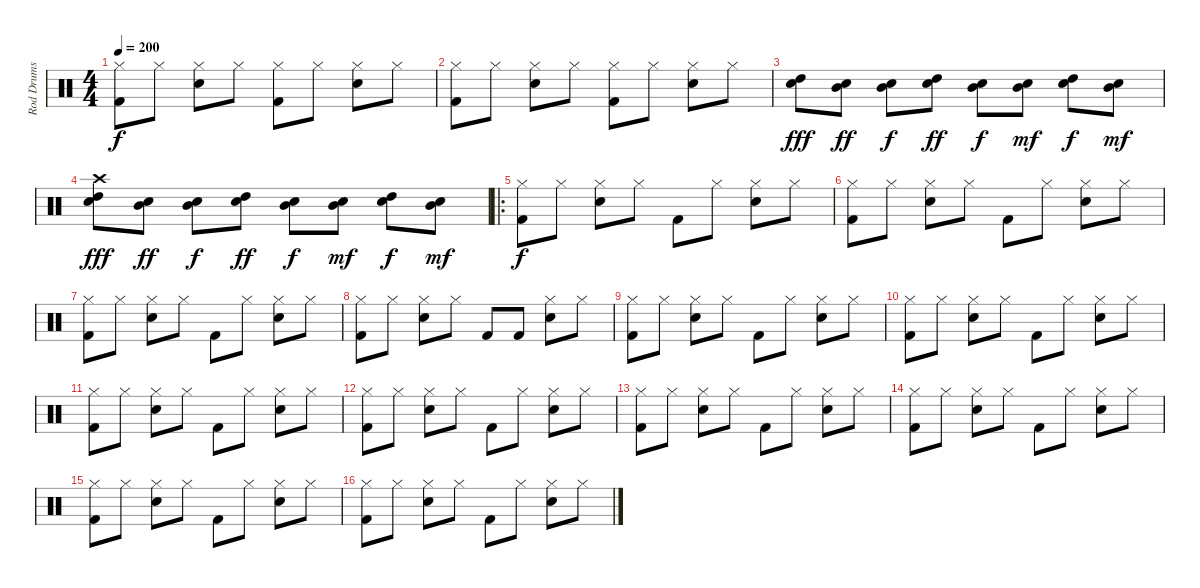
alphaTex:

\track ("Rod Drums" "Rod Drums") {instrument percussion}
\staff {score}
\articulation defaults
\ts (4 4)
\tempo 200
\clef neutral
\ks c
("Kick (hit) 2" "Hi-Hat (closed)").8{dy f} "Hi-Hat (closed)".8 ("Snare (hit) 2" "Hi-Hat (closed)").8 "Hi-Hat (closed)".8 ("Kick (hit) 2" "Hi-Hat (closed)").8 "Hi-Hat (closed)".8 ("Snare (hit) 2" "Hi-Hat (closed)").8 "Hi-Hat (closed)".8 |
("Kick (hit) 2" "Hi-Hat (closed)").8 "Hi-Hat (closed)".8 ("Snare (hit) 2" "Hi-Hat (closed)").8 "Hi-Hat (closed)".8 ("Kick (hit) 2" "Hi-Hat (closed)").8 "Hi-Hat (closed)".8 ("Snare (hit) 2" "Hi-Hat (closed)").8 "Hi-Hat (closed)".8 |
("Snare (hit) 2" "High Tom (hit)").8{dy fff} ("Snare (hit) 2" "Mid Tom (hit)").8{dy ff} ("Snare (hit) 2" "Mid Tom (hit)").8{dy f} ("Snare (hit) 2" "High Tom (hit)").8{dy ff} ("Snare (hit) 2" "Mid Tom (hit)").8{dy f} ("Snare (hit) 2" "Mid Tom (hit)").8{dy mf} ("Snare (hit) 2" "High Tom (hit)").8{dy f} ("Snare (hit) 2" "Mid Tom (hit)").8{dy mf} |
("Snare (hit) 2" "High Tom (hit)" "Crash high (hit)").8{dy fff} ("Snare (hit) 2" "Mid Tom (hit)").8{dy ff} ("Snare (hit) 2" "Mid Tom (hit)").8{dy f} ("Snare (hit) 2" "High Tom (hit)").8{dy ff} ("Snare (hit) 2" "Mid Tom (hit)").8{dy f} ("Snare (hit) 2" "Mid Tom (hit)").8{dy mf} ("Snare (hit) 2" "High Tom (hit)").8{dy f} ("Snare (hit) 2" "Mid Tom (hit)").8{dy mf} |
\ro
("Kick (hit) 2" "Hi-Hat (closed)").8{dy f} "Hi-Hat (closed)".8 ("Snare (hit) 2" "Hi-Hat (closed)").8 "Hi-Hat (closed)".8 "Kick (hit) 2".8 "Hi-Hat (closed)".8 ("Snare (hit) 2" "Hi-Hat (closed)").8 "Hi-Hat (closed)".8 |
("Kick (hit) 2" "Hi-Hat (closed)").8 "Hi-Hat (closed)".8 ("Snare (hit) 2" "Hi-Hat (closed)").8 "Hi-Hat (closed)".8 "Kick (hit) 2".8 "Hi-Hat (closed)".8 ("Snare (hit) 2" "Hi-Hat (closed)").8 "Hi-Hat (closed)".8 |
("Kick (hit) 2" "Hi-Hat (closed)").8 "Hi-Hat (closed)".8 ("Snare (hit) 2" "Hi-Hat (closed)").8 "Hi-Hat (closed)".8 "Kick (hit) 2".8 "Hi-Hat (closed)".8 ("Snare (hit) 2" "Hi-Hat (closed)").8 "Hi-Hat (closed)".8 |
("Kick (hit) 2" "Hi-Hat (closed)").8 "Hi-Hat (closed)".8 ("Snare (hit) 2" "Hi-Hat (closed)").8 "Hi-Hat (closed)".8 "Kick (hit) 2".8 "Kick (hit) 2".8 ("Snare (hit) 2" "Hi-Hat (closed)").8 "Hi-Hat (closed)".8 |
("Kick (hit) 2" "Hi-Hat (closed)").8 "Hi-Hat (closed)".8 ("Snare (hit) 2" "Hi-Hat (closed)").8 "Hi-Hat (closed)".8 "Kick (hit) 2".8 "Hi-Hat (closed)".8 ("Snare (hit) 2" "Hi-Hat (closed)").8 "Hi-Hat (closed)".8 |
("Kick (hit) 2" "Hi-Hat (closed)").8 "Hi-Hat (closed)".8 ("Snare (hit) 2" "Hi-Hat (closed)").8 "Hi-Hat (closed)".8 "Kick (hit) 2".8 "Hi-Hat (closed)".8 ("Snare (hit) 2" "Hi-Hat (closed)").8 "Hi-Hat (closed)".8 |
("Kick (hit) 2" "Hi-Hat (closed)").8 "Hi-Hat (closed)".8 ("Snare (hit) 2" "Hi-Hat (closed)").8 "Hi-Hat (closed)".8 "Kick (hit) 2".8 "Hi-Hat (closed)".8 ("Snare (hit) 2" "Hi-Hat (closed)").8 "Hi-Hat (closed)".8 |
("Kick (hit) 2" "Hi-Hat (closed)").8 "Hi-Hat (closed)".8 ("Snare (hit) 2" "Hi-Hat (closed)").8 "Hi-Hat (closed)".8 "Kick (hit) 2".8 "Hi-Hat (closed)".8 ("Snare (hit) 2" "Hi-Hat (closed)").8 "Hi-Hat (closed)".8 |
("Kick (hit) 2" "Hi-Hat (closed)").8 "Hi-Hat (closed)".8 ("Snare (hit) 2" "Hi-Hat (closed)").8 "Hi-Hat (closed)".8 "Kick (hit) 2".8 "Hi-Hat (closed)".8 ("Snare (hit) 2" "Hi-Hat (closed)").8 "Hi-Hat (closed)".8 |
("Kick (hit) 2" "Hi-Hat (closed)").8 "Hi-Hat (closed)".8 ("Snare (hit) 2" "Hi-Hat (closed)").8 "Hi-Hat (closed)".8 "Kick (hit) 2".8 "Hi-Hat (closed)".8 ("Snare (hit) 2" "Hi-Hat (closed)").8 "Hi-Hat (closed)".8 |
("Kick (hit) 2" "Hi-Hat (closed)").8 "Hi-Hat (closed)".8 ("Snare (hit) 2" "Hi-Hat (closed)").8 "Hi-Hat (closed)".8 "Kick (hit) 2".8 "Hi-Hat (closed)".8 ("Snare (hit) 2" "Hi-Hat (closed)").8 "Hi-Hat (closed)".8 |
("Kick (hit) 2" "Hi-Hat (closed)").8 "Hi-Hat (closed)".8 ("Snare (hit) 2" "Hi-Hat (closed)").8 "Hi-Hat (closed)".8 "Kick (hit) 2".8 "Hi-Hat (closed)".8 ("Snare (hit) 2" "Hi-Hat (closed)").8 "Hi-Hat (closed)".8
